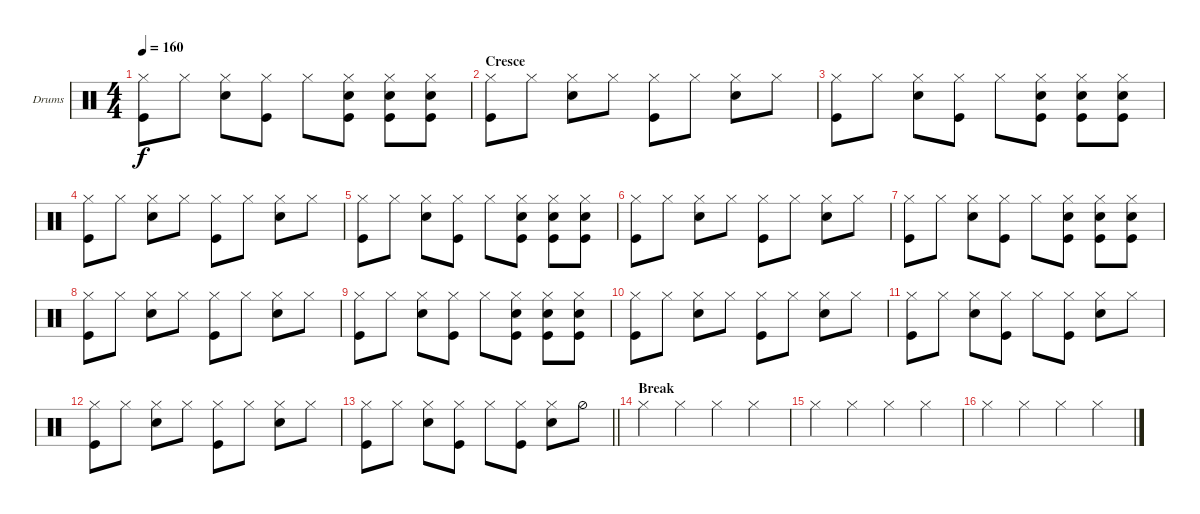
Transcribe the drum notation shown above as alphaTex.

\bracketExtendMode groupsimilarinstruments
\firstSystemTrackNameOrientation horizontal
\otherSystemsTrackNameOrientation horizontal
\track ("Fabrizio" "Drums") {instrument percussion}
\staff {score}
\articulation defaults
\ts (4 4)
\tempo 160
\clef neutral
\ks c
("Hi-Hat (closed)" "Kick (hit)").8{dy f} "Hi-Hat (closed)".8 ("Hi-Hat (closed)" "Snare (hit) 2").8 ("Hi-Hat (closed)" "Kick (hit)").8 "Hi-Hat (closed)".8 ("Hi-Hat (closed)" "Snare (hit) 2" "Kick (hit)").8 ("Hi-Hat (closed)" "Snare (hit) 2" "Kick (hit)").8 ("Hi-Hat (closed)" "Snare (hit) 2" "Kick (hit)").8 |
\section ("" "Cresce")
("Hi-Hat (closed)" "Kick (hit)").8 "Hi-Hat (closed)".8 ("Hi-Hat (closed)" "Snare (hit) 2").8 "Hi-Hat (closed)".8 ("Hi-Hat (closed)" "Kick (hit)").8 "Hi-Hat (closed)".8 ("Hi-Hat (closed)" "Snare (hit) 2").8 "Hi-Hat (closed)".8 |
("Hi-Hat (closed)" "Kick (hit)").8 "Hi-Hat (closed)".8 ("Hi-Hat (closed)" "Snare (hit) 2").8 ("Hi-Hat (closed)" "Kick (hit)").8 "Hi-Hat (closed)".8 ("Hi-Hat (closed)" "Snare (hit) 2" "Kick (hit)").8 ("Hi-Hat (closed)" "Snare (hit) 2" "Kick (hit)").8 ("Hi-Hat (closed)" "Snare (hit) 2" "Kick (hit)").8 |
("Hi-Hat (closed)" "Kick (hit)").8 "Hi-Hat (closed)".8 ("Hi-Hat (closed)" "Snare (hit) 2").8 "Hi-Hat (closed)".8 ("Hi-Hat (closed)" "Kick (hit)").8 "Hi-Hat (closed)".8 ("Hi-Hat (closed)" "Snare (hit) 2").8 "Hi-Hat (closed)".8 |
("Hi-Hat (closed)" "Kick (hit)").8 "Hi-Hat (closed)".8 ("Hi-Hat (closed)" "Snare (hit) 2").8 ("Hi-Hat (closed)" "Kick (hit)").8 "Hi-Hat (closed)".8 ("Hi-Hat (closed)" "Snare (hit) 2" "Kick (hit)").8 ("Hi-Hat (closed)" "Snare (hit) 2" "Kick (hit)").8 ("Hi-Hat (closed)" "Snare (hit) 2" "Kick (hit)").8 |
("Hi-Hat (closed)" "Kick (hit)").8 "Hi-Hat (closed)".8 ("Hi-Hat (closed)" "Snare (hit) 2").8 "Hi-Hat (closed)".8 ("Hi-Hat (closed)" "Kick (hit)").8 "Hi-Hat (closed)".8 ("Hi-Hat (closed)" "Snare (hit) 2").8 "Hi-Hat (closed)".8 |
("Hi-Hat (closed)" "Kick (hit)").8 "Hi-Hat (closed)".8 ("Hi-Hat (closed)" "Snare (hit) 2").8 ("Hi-Hat (closed)" "Kick (hit)").8 "Hi-Hat (closed)".8 ("Hi-Hat (closed)" "Snare (hit) 2" "Kick (hit)").8 ("Hi-Hat (closed)" "Snare (hit) 2" "Kick (hit)").8 ("Hi-Hat (closed)" "Snare (hit) 2" "Kick (hit)").8 |
("Hi-Hat (closed)" "Kick (hit)").8 "Hi-Hat (closed)".8 ("Hi-Hat (closed)" "Snare (hit) 2").8 "Hi-Hat (closed)".8 ("Hi-Hat (closed)" "Kick (hit)").8 "Hi-Hat (closed)".8 ("Hi-Hat (closed)" "Snare (hit) 2").8 "Hi-Hat (closed)".8 |
("Hi-Hat (closed)" "Kick (hit)").8 "Hi-Hat (closed)".8 ("Hi-Hat (closed)" "Snare (hit) 2").8 ("Hi-Hat (closed)" "Kick (hit)").8 "Hi-Hat (closed)".8 ("Hi-Hat (closed)" "Snare (hit) 2" "Kick (hit)").8 ("Hi-Hat (closed)" "Snare (hit) 2" "Kick (hit)").8 ("Hi-Hat (closed)" "Snare (hit) 2" "Kick (hit)").8 |
("Hi-Hat (closed)" "Kick (hit)").8 "Hi-Hat (closed)".8 ("Hi-Hat (closed)" "Snare (hit) 2").8 "Hi-Hat (closed)".8 ("Hi-Hat (closed)" "Kick (hit)").8 "Hi-Hat (closed)".8 ("Hi-Hat (closed)" "Snare (hit) 2").8 "Hi-Hat (closed)".8 |
("Hi-Hat (closed)" "Kick (hit)").8 "Hi-Hat (closed)".8 ("Hi-Hat (closed)" "Snare (hit) 2").8 ("Hi-Hat (closed)" "Kick (hit)").8 "Hi-Hat (closed)".8 ("Hi-Hat (closed)" "Kick (hit)").8 ("Hi-Hat (closed)" "Snare (hit) 2").8 "Hi-Hat (closed)".8 |
("Hi-Hat (closed)" "Kick (hit)").8 "Hi-Hat (closed)".8 ("Hi-Hat (closed)" "Snare (hit) 2").8 "Hi-Hat (closed)".8 ("Hi-Hat (closed)" "Kick (hit)").8 "Hi-Hat (closed)".8 ("Hi-Hat (closed)" "Snare (hit) 2").8 "Hi-Hat (closed)".8 |
\barLineRight lightlight
("Hi-Hat (closed)" "Kick (hit)").8 "Hi-Hat (closed)".8 ("Hi-Hat (closed)" "Snare (hit) 2").8 ("Hi-Hat (closed)" "Kick (hit)").8 "Hi-Hat (closed)".8 ("Hi-Hat (closed)" "Kick (hit)").8 ("Hi-Hat (closed)" "Snare (hit) 2").8 "Hi-Hat (half)".8 |
\section ("" "Break")
"Hi-Hat (closed)".4 "Hi-Hat (closed)".4 "Hi-Hat (closed)".4 "Hi-Hat (closed)".4 |
"Hi-Hat (closed)".4 "Hi-Hat (closed)".4 "Hi-Hat (closed)".4 "Hi-Hat (closed)".4 |
"Hi-Hat (closed)".4 "Hi-Hat (closed)".4 "Hi-Hat (closed)".4 "Hi-Hat (closed)".4
